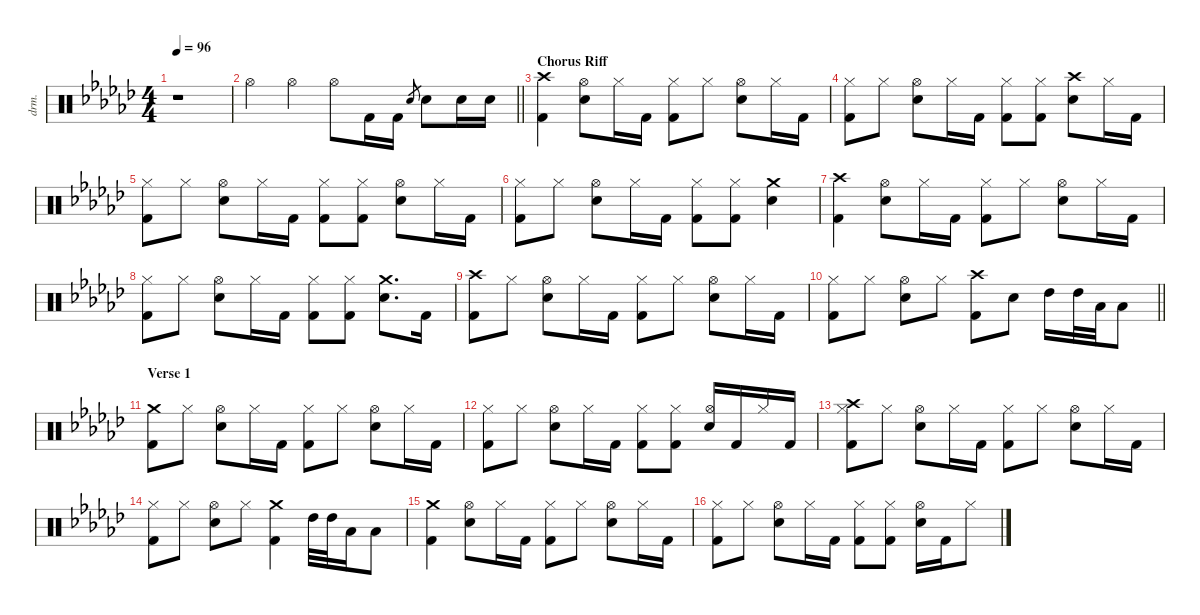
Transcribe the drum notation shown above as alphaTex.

\defaultSystemsLayout 4
\hideDynamics
\bracketExtendMode nobrackets
\otherSystemsTrackNameOrientation horizontal
\track ("Drums (Alex Van Halen)" "drm.") {instrument percussion}
\staff {score}
\articulation defaults
\ts (4 4)
\beaming (8 2 2 2 2)
\tempo 96
\clef neutral
\ks ebminor
r.1{dy fff beam Down} |
\barLineRight lightlight "Hi-Hat (open)"{acc forcenatural}.4{beam Down} "Hi-Hat (open)"{acc forcenatural}.4{beam Down} "Hi-Hat (open)"{acc forcenatural}.8{beam Down} "Kick (hit) 2"{acc forcenatural}.16{dy f beam Down} "Kick (hit) 2"{acc forcenatural}.16{beam Down} "Snare (hit) 2"{acc forcenatural}.8{gr dy mf beam Up} "Snare (hit) 2"{acc forcenatural}.8{dy f beam Down} "Snare (hit) 2"{acc forcenatural}.16{beam Down} "Snare (hit) 2"{acc forcenatural}.16{beam Down}
|
\section ("" "Chorus Riff")
("Crash high (hit)"{acc forcenatural} "Kick (hit) 2"{acc forcenatural}).4{dy fff beam Down} ("Hi-Hat (open)"{acc forcenatural} "Snare (hit) 2"{acc forcenatural}).8{beam Down} "Hi-Hat (closed)"{acc forcenatural}.16{dy mf beam Down} "Kick (hit) 2"{acc forcenatural}.16{dy f beam Down} ("Hi-Hat (closed)"{acc forcenatural} "Kick (hit) 2"{acc forcenatural}).8{dy fff beam Down} "Hi-Hat (closed)"{acc forcenatural}.8{dy mf beam Down} ("Hi-Hat (open)"{acc forcenatural} "Snare (hit) 2"{acc forcenatural}).8{dy fff beam Down} "Hi-Hat (closed)"{acc forcenatural}.16{dy f beam Down} "Kick (hit) 2"{acc forcenatural}.16{beam Down} |
("Hi-Hat (closed)"{acc forcenatural} "Kick (hit) 2"{acc forcenatural}).8{dy fff beam Down} "Hi-Hat (closed)"{acc forcenatural}.8{dy mf beam Down} ("Hi-Hat (open)"{acc forcenatural} "Snare (hit) 2"{acc forcenatural}).8{dy fff beam Down} "Hi-Hat (closed)"{acc forcenatural}.16{dy mp beam Down} "Kick (hit) 2"{acc forcenatural}.16{dy f beam Down} ("Hi-Hat (closed)"{acc forcenatural} "Kick (hit) 2"{acc forcenatural}).8{dy fff beam Down} ("Hi-Hat (closed)"{acc forcenatural} "Kick (hit) 2"{acc forcenatural}).8{dy p beam Down} ("Crash high (hit)"{acc forcenatural} "Snare (hit) 2"{acc forcenatural}).8{dy fff beam Down} "Hi-Hat (closed)"{acc forcenatural}.16{dy mp beam Down} "Kick (hit) 2"{acc forcenatural}.16{dy f beam Down} |
("Hi-Hat (closed)"{acc forcenatural} "Kick (hit) 2"{acc forcenatural}).8{dy fff beam Down} "Hi-Hat (closed)"{acc forcenatural}.8{dy mf beam Down} ("Hi-Hat (open)"{acc forcenatural} "Snare (hit) 2"{acc forcenatural}).8{dy fff beam Down} "Hi-Hat (closed)"{acc forcenatural}.16{dy mp beam Down} "Kick (hit) 2"{acc forcenatural}.16{dy f beam Down} ("Hi-Hat (closed)"{acc forcenatural} "Kick (hit) 2"{acc forcenatural}).8{dy fff beam Down} ("Hi-Hat (closed)"{acc forcenatural} "Kick (hit) 2"{acc forcenatural}).8{dy p beam Down} ("Hi-Hat (open)"{acc forcenatural} "Snare (hit) 2"{acc forcenatural}).8{dy fff beam Down} "Hi-Hat (closed)"{acc forcenatural}.16{dy mp beam Down} "Kick (hit) 2"{acc forcenatural}.16{dy f beam Down} |
("Hi-Hat (closed)"{acc forcenatural} "Kick (hit) 2"{acc forcenatural}).8{beam Down} "Hi-Hat (closed)"{acc forcenatural}.8{dy mf beam Down} ("Hi-Hat (open)"{acc forcenatural} "Snare (hit) 2"{acc forcenatural}).8{dy fff beam Down} "Hi-Hat (closed)"{acc forcenatural}.16{beam Down} "Kick (hit) 2"{acc forcenatural}.16{dy f beam Down} ("Hi-Hat (closed)"{acc forcenatural} "Kick (hit) 2"{acc forcenatural}).8{dy fff beam Down} ("Hi-Hat (closed)"{acc forcenatural} "Kick (hit) 2"{acc forcenatural}).8{dy ff beam Down} ("Crash medium (hit)"{acc forcenatural} "Snare (hit) 2"{acc forcenatural}).4{dy fff beam Down} |
("Crash high (hit)"{acc forcenatural} "Kick (hit) 2"{acc forcenatural}).4{beam Down} ("Hi-Hat (open)"{acc forcenatural} "Snare (hit) 2"{acc forcenatural}).8{beam Down} "Hi-Hat (closed)"{acc forcenatural}.16{dy mf beam Down} "Kick (hit) 2"{acc forcenatural}.16{dy f beam Down} ("Hi-Hat (closed)"{acc forcenatural} "Kick (hit) 2"{acc forcenatural}).8{beam Down} "Hi-Hat (closed)"{acc forcenatural}.8{dy mf beam Down} ("Hi-Hat (open)"{acc forcenatural} "Snare (hit) 2"{acc forcenatural}).8{dy fff beam Down} "Hi-Hat (closed)"{acc forcenatural}.16{dy f beam Down} "Kick (hit) 2"{acc forcenatural}.16{beam Down} |
("Kick (hit) 2"{acc forcenatural} "Hi-Hat (closed)"{acc forcenatural}).8{dy fff beam Down} "Hi-Hat (closed)"{acc forcenatural}.8{dy p beam Down} ("Hi-Hat (open)"{acc forcenatural} "Snare (hit) 2"{acc forcenatural}).8{dy fff beam Down} "Hi-Hat (closed)"{acc forcenatural}.16{dy f beam Down} "Kick (hit) 2"{acc forcenatural}.16{dy fff beam Down} ("Hi-Hat (closed)"{acc forcenatural} "Kick (hit) 2"{acc forcenatural}).8{dy mp beam Down} ("Kick (hit) 2"{acc forcenatural} "Hi-Hat (closed)"{acc forcenatural}).8{dy fff beam Down} ("Snare (hit) 2"{acc forcenatural} "Crash medium (hit)"{acc forcenatural}).8{d beam Down} "Kick (hit) 2"{acc forcenatural}.16{beam Down} |
("Kick (hit) 2"{acc forcenatural} "Crash high (hit)"{acc forcenatural}).8{beam Down} "Hi-Hat (closed)"{acc forcenatural}.8{dy ppp beam Down} ("Snare (hit) 2"{acc forcenatural} "Hi-Hat (open)"{acc forcenatural}).8{dy fff beam Down} "Hi-Hat (closed)"{acc forcenatural}.16{dy mp beam Down} "Kick (hit) 2"{acc forcenatural}.16{dy fff beam Down} ("Kick (hit) 2"{acc forcenatural} "Hi-Hat (closed)"{acc forcenatural}).8{beam Down} "Hi-Hat (closed)"{acc forcenatural}.8{dy mp beam Down} ("Snare (hit) 2"{acc forcenatural} "Hi-Hat (open)"{acc forcenatural}).8{dy fff beam Down} "Hi-Hat (closed)"{acc forcenatural}.16{dy p beam Down} "Kick (hit) 2"{acc forcenatural}.16{dy fff beam Down} |
\barLineRight lightlight
("Hi-Hat (closed)"{acc forcenatural} "Kick (hit) 2"{acc forcenatural}).8{dy f beam Down} "Hi-Hat (closed)"{acc forcenatural}.8{dy mp beam Down} ("Hi-Hat (open)"{acc forcenatural} "Snare (hit) 2"{acc forcenatural}).8{dy fff beam Down} "Hi-Hat (closed)"{acc forcenatural}.8{dy mf beam Down} ("Crash high (hit)"{acc forcenatural} "Kick (hit) 2"{acc forcenatural}).8{dy fff beam Down} "Snare (hit) 2"{acc forcenatural}.8{dy f beam Down} "High Tom (hit)"{acc forcenatural}.16{beam Down} "High Tom (hit)"{acc forcenatural}.32{beam Down} "Low Tom (hit)"{acc forcenatural}.32{beam Down} "Low Tom (hit)"{acc forcenatural}.8{beam Down} |
\section ("" "Verse 1")
("Crash medium (hit)"{acc forcenatural} "Kick (hit) 2"{acc forcenatural}).8{dy fff beam Down} "Hi-Hat (closed)"{acc forcenatural}.8{beam Down} ("Hi-Hat (open)"{acc forcenatural} "Snare (hit) 2"{acc forcenatural}).8{beam Down} "Hi-Hat (closed)"{acc forcenatural}.16{dy mp beam Down} "Kick (hit) 2"{acc forcenatural}.16{dy fff beam Down} ("Hi-Hat (closed)"{acc forcenatural} "Kick (hit) 2"{acc forcenatural}).8{dy f beam Down} "Hi-Hat (closed)"{acc forcenatural}.8{dy p beam Down} ("Snare (hit) 2"{acc forcenatural} "Hi-Hat (open)"{acc forcenatural}).8{dy fff beam Down} "Hi-Hat (closed)"{acc forcenatural}.16{dy mp beam Down} "Kick (hit) 2"{acc forcenatural}.16{dy fff beam Down} |
("Kick (hit) 2"{acc forcenatural} "Hi-Hat (closed)"{acc forcenatural}).8{beam Down} "Hi-Hat (closed)"{acc forcenatural}.8{dy mp beam Down} ("Snare (hit) 2"{acc forcenatural} "Hi-Hat (open)"{acc forcenatural}).8{dy fff beam Down} "Hi-Hat (closed)"{acc forcenatural}.16{dy mf beam Down} "Kick (hit) 2"{acc forcenatural}.16{dy fff beam Down} ("Kick (hit) 2"{acc forcenatural} "Hi-Hat (closed)"{acc forcenatural}).8{beam Down} ("Hi-Hat (closed)"{acc forcenatural} "Kick (hit) 2"{acc forcenatural}).8{dy mf beam Down} ("Snare (hit) 2"{acc forcenatural} "Hi-Hat (open)"{acc forcenatural}).16{dy fff beam Up} "Kick (hit) 2"{acc forcenatural}.16{beam Up} "Hi-Hat (closed)"{acc forcenatural}.16{dy f beam Up} "Kick (hit) 2"{acc forcenatural}.16{dy pp beam Up} |
("Crash high (hit)"{acc forcenatural} "Kick (hit) 2"{acc forcenatural} "Hi-Hat (closed)"{acc forcenatural}).8{dy fff beam Down} "Hi-Hat (closed)"{acc forcenatural}.8{dy pp beam Down} ("Hi-Hat (open)"{acc forcenatural} "Snare (hit) 2"{acc forcenatural}).8{dy fff beam Down} "Hi-Hat (closed)"{acc forcenatural}.16{dy mf beam Down} "Kick (hit) 2"{acc forcenatural}.16{dy pp beam Down} ("Kick (hit) 2"{acc forcenatural} "Hi-Hat (closed)"{acc forcenatural}).8{dy fff beam Down} "Hi-Hat (closed)"{acc forcenatural}.8{dy mf beam Down} ("Snare (hit) 2"{acc forcenatural} "Hi-Hat (open)"{acc forcenatural}).8{dy f beam Down} "Hi-Hat (closed)"{acc forcenatural}.16{dy ppp beam Down} "Kick (hit) 2"{acc forcenatural}.16{dy fff beam Down} |
("Hi-Hat (closed)"{acc forcenatural} "Kick (hit) 2"{acc forcenatural}).8{beam Down} "Hi-Hat (closed)"{acc forcenatural}.8{dy mp beam Down} ("Hi-Hat (open)"{acc forcenatural} "Snare (hit) 2"{acc forcenatural}).8{dy fff beam Down} "Hi-Hat (closed)"{acc forcenatural}.8{dy mf beam Down} ("Crash medium (hit)"{acc forcenatural} "Kick (hit) 2"{acc forcenatural}).4{dy fff beam Down} "High Tom (hit)"{acc forcenatural}.32{dy f beam Down} "High Tom (hit)"{acc forcenatural}.32{beam Down} "Low Tom (hit)"{acc forcenatural}.16{beam Down} "Low Tom (hit)"{acc forcenatural}.8{beam Down} |
("Kick (hit) 2"{acc forcenatural} "Crash medium (hit)"{acc forcenatural}).4{dy fff beam Down} ("Hi-Hat (open)"{acc forcenatural} "Snare (hit) 2"{acc forcenatural}).8{beam Down} "Hi-Hat (closed)"{acc forcenatural}.16{dy p beam Down} "Kick (hit) 2"{acc forcenatural}.16{dy fff beam Down} ("Kick (hit) 2"{acc forcenatural} "Hi-Hat (closed)"{acc forcenatural}).8{beam Down} "Hi-Hat (closed)"{acc forcenatural}.8{dy p beam Down} ("Snare (hit) 2"{acc forcenatural} "Hi-Hat (open)"{acc forcenatural}).8{dy fff beam Down} "Hi-Hat (closed)"{acc forcenatural}.16{dy mp beam Down} "Kick (hit) 2"{acc forcenatural}.16{dy fff beam Down} |
("Hi-Hat (closed)"{acc forcenatural} "Kick (hit) 2"{acc forcenatural}).8{dy ff beam Down} "Hi-Hat (closed)"{acc forcenatural}.8{dy mp beam Down} ("Snare (hit) 2"{acc forcenatural} "Hi-Hat (open)"{acc forcenatural}).8{dy fff beam Down} "Hi-Hat (closed)"{acc forcenatural}.16{dy mp beam Down} "Kick (hit) 2"{acc forcenatural}.16{dy fff beam Down} ("Hi-Hat (closed)"{acc forcenatural} "Kick (hit) 2"{acc forcenatural}).8{dy f beam Down} ("Kick (hit) 2"{acc forcenatural} "Hi-Hat (closed)"{acc forcenatural}).8{dy fff beam Down} ("Snare (hit) 2"{acc forcenatural} "Hi-Hat (open)"{acc forcenatural}).16{beam Down} "Kick (hit) 2"{acc forcenatural}.16{beam Down} "Hi-Hat (closed)"{acc forcenatural}.8{dy p beam Down}
